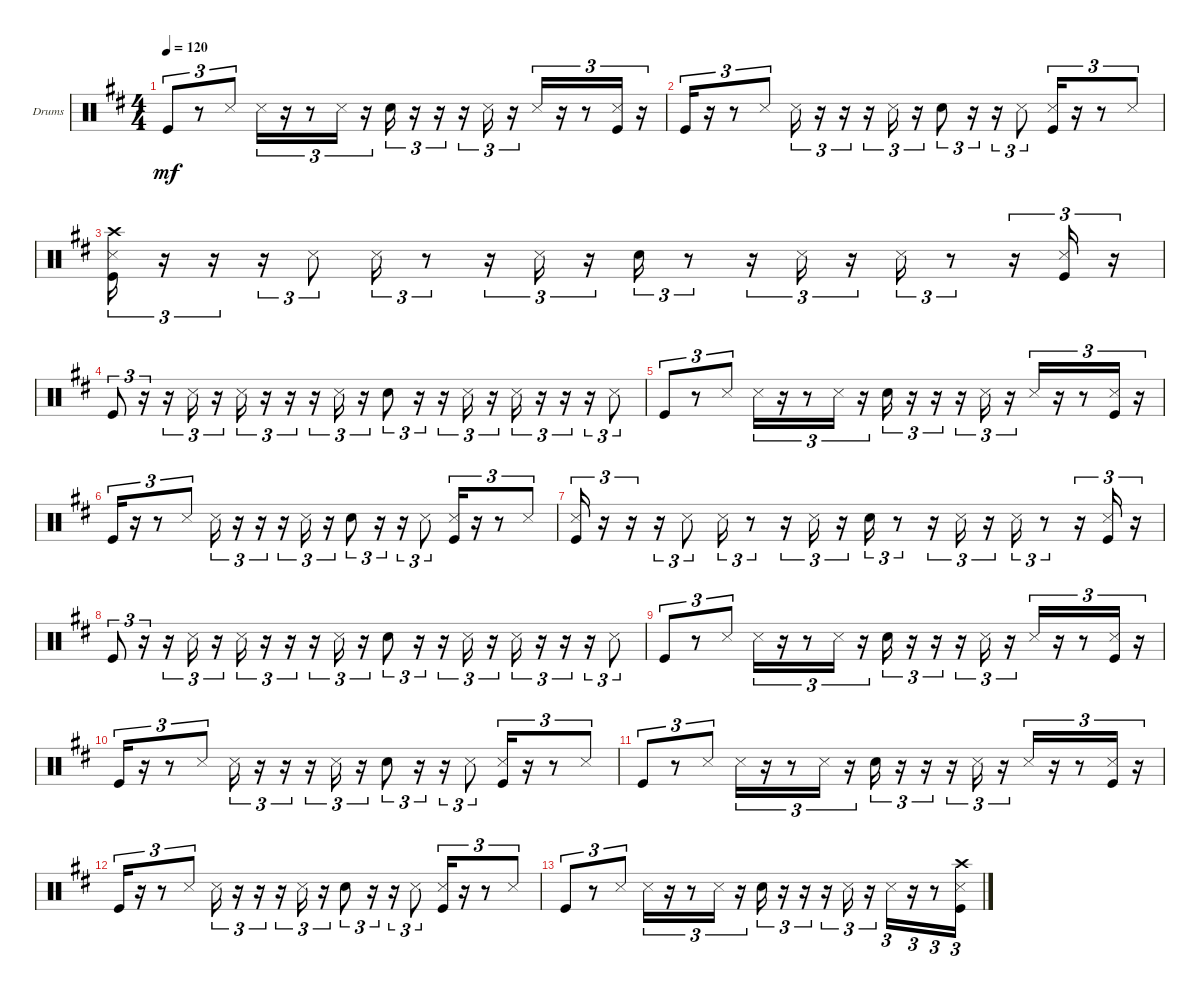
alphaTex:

\defaultSystemsLayout 4
\bracketExtendMode groupsimilarinstruments
\firstSystemTrackNameOrientation horizontal
\otherSystemsTrackNameOrientation horizontal
\track ("Drumkit" "Drums") {multiBarRest instrument percussion}
\staff {score}
\articulation defaults
\ts (4 4)
\tempo 120
\clef neutral
\ks d "Kick (hit)".8{tu (3 2) dy mf}
r.8{tu (3 2)} "Snare (side stick) 3".8{tu (3 2)} "Snare (side stick) 3".16{tu (3 2)} r.16{tu (3 2)} r.8{tu (3 2)} "Snare (side stick) 3".16{tu (3 2)} r.16{tu (3 2)} "Snare (hit) 2".16{tu (3 2)} r.16{tu (3 2)} r.16{tu (3 2)} r.16{tu (3 2)} "Snare (side stick) 3".16{tu (3 2)} r.16{tu (3 2)} "Snare (side stick) 3".16{tu (3 2)} r.16{tu (3 2)} r.8{tu (3 2)} ("Kick (hit)" "Snare (side stick) 3").16{tu (3 2)} r.16{tu (3 2)} |
"Kick (hit)".16{tu (3 2)} r.16{tu (3 2)} r.8{tu (3 2)} "Snare (side stick) 3".8{tu (3 2)} "Snare (side stick) 3".16{tu (3 2)} r.16{tu (3 2)} r.16{tu (3 2)} r.16{tu (3 2)} "Snare (side stick) 3".16{tu (3 2)} r.16{tu (3 2)} "Snare (hit) 2".8{tu (3 2)} r.16{tu (3 2)} r.16{tu (3 2)} "Snare (side stick) 3".8{tu (3 2)} ("Kick (hit)" "Snare (side stick) 3").16{tu (3 2)} r.16{tu (3 2)} r.8{tu (3 2)} "Snare (side stick) 3".8{tu (3 2)} |
("Crash high (hit)" "Kick (hit)" "Snare (side stick) 3").16{tu (3 2)} r.16{tu (3 2)} r.16{tu (3 2)} r.16{tu (3 2)} "Snare (side stick) 3".8{tu (3 2)} "Snare (side stick) 3".16{tu (3 2)} r.8{tu (3 2)} r.16{tu (3 2)} "Snare (side stick) 3".16{tu (3 2)} r.16{tu (3 2)} "Snare (hit) 2".16{tu (3 2)} r.8{tu (3 2)} r.16{tu (3 2)} "Snare (side stick) 3".16{tu (3 2)} r.16{tu (3 2)} "Snare (side stick) 3".16{tu (3 2)} r.8{tu (3 2)} r.16{tu (3 2)} ("Kick (hit)" "Snare (side stick) 3").16{tu (3 2)} r.16{tu (3 2)} |
"Kick (hit)".8{tu (3 2)} r.16{tu (3 2)} r.16{tu (3 2)} "Snare (side stick) 3".16{tu (3 2)} r.16{tu (3 2)} "Snare (side stick) 3".16{tu (3 2)} r.16{tu (3 2)} r.16{tu (3 2)} r.16{tu (3 2)} "Snare (side stick) 3".16{tu (3 2)} r.16{tu (3 2)} "Snare (hit) 2".8{tu (3 2)} r.16{tu (3 2)} r.16{tu (3 2)} "Snare (side stick) 3".16{tu (3 2)} r.16{tu (3 2)} "Snare (side stick) 3".16{tu (3 2)} r.16{tu (3 2)} r.16{tu (3 2)} r.16{tu (3 2)} "Snare (side stick) 3".8{tu (3 2)} |
"Kick (hit)".8{tu (3 2)} r.8{tu (3 2)} "Snare (side stick) 3".8{tu (3 2)} "Snare (side stick) 3".16{tu (3 2)} r.16{tu (3 2)} r.8{tu (3 2)} "Snare (side stick) 3".16{tu (3 2)} r.16{tu (3 2)} "Snare (hit) 2".16{tu (3 2)} r.16{tu (3 2)} r.16{tu (3 2)} r.16{tu (3 2)} "Snare (side stick) 3".16{tu (3 2)} r.16{tu (3 2)} "Snare (side stick) 3".16{tu (3 2)} r.16{tu (3 2)} r.8{tu (3 2)} ("Kick (hit)" "Snare (side stick) 3").16{tu (3 2)} r.16{tu (3 2)} |
"Kick (hit)".16{tu (3 2)} r.16{tu (3 2)} r.8{tu (3 2)} "Snare (side stick) 3".8{tu (3 2)} "Snare (side stick) 3".16{tu (3 2)} r.16{tu (3 2)} r.16{tu (3 2)} r.16{tu (3 2)} "Snare (side stick) 3".16{tu (3 2)} r.16{tu (3 2)} "Snare (hit) 2".8{tu (3 2)} r.16{tu (3 2)} r.16{tu (3 2)} "Snare (side stick) 3".8{tu (3 2)} ("Kick (hit)" "Snare (side stick) 3").16{tu (3 2)} r.16{tu (3 2)} r.8{tu (3 2)} "Snare (side stick) 3".8{tu (3 2)} |
("Kick (hit)" "Snare (side stick) 3").16{tu (3 2)} r.16{tu (3 2)} r.16{tu (3 2)} r.16{tu (3 2)} "Snare (side stick) 3".8{tu (3 2)} "Snare (side stick) 3".16{tu (3 2)} r.8{tu (3 2)} r.16{tu (3 2)} "Snare (side stick) 3".16{tu (3 2)} r.16{tu (3 2)} "Snare (hit) 2".16{tu (3 2)} r.8{tu (3 2)} r.16{tu (3 2)} "Snare (side stick) 3".16{tu (3 2)} r.16{tu (3 2)} "Snare (side stick) 3".16{tu (3 2)} r.8{tu (3 2)} r.16{tu (3 2)} ("Kick (hit)" "Snare (side stick) 3").16{tu (3 2)} r.16{tu (3 2)} |
"Kick (hit)".8{tu (3 2)} r.16{tu (3 2)} r.16{tu (3 2)} "Snare (side stick) 3".16{tu (3 2)} r.16{tu (3 2)} "Snare (side stick) 3".16{tu (3 2)} r.16{tu (3 2)} r.16{tu (3 2)} r.16{tu (3 2)} "Snare (side stick) 3".16{tu (3 2)} r.16{tu (3 2)} "Snare (hit) 2".8{tu (3 2)} r.16{tu (3 2)} r.16{tu (3 2)} "Snare (side stick) 3".16{tu (3 2)} r.16{tu (3 2)} "Snare (side stick) 3".16{tu (3 2)} r.16{tu (3 2)} r.16{tu (3 2)} r.16{tu (3 2)} "Snare (side stick) 3".8{tu (3 2)} |
"Kick (hit)".8{tu (3 2)} r.8{tu (3 2)} "Snare (side stick) 3".8{tu (3 2)} "Snare (side stick) 3".16{tu (3 2)} r.16{tu (3 2)} r.8{tu (3 2)} "Snare (side stick) 3".16{tu (3 2)} r.16{tu (3 2)} "Snare (hit) 2".16{tu (3 2)} r.16{tu (3 2)} r.16{tu (3 2)} r.16{tu (3 2)} "Snare (side stick) 3".16{tu (3 2)} r.16{tu (3 2)} "Snare (side stick) 3".16{tu (3 2)} r.16{tu (3 2)} r.8{tu (3 2)} ("Kick (hit)" "Snare (side stick) 3").16{tu (3 2)} r.16{tu (3 2)} |
"Kick (hit)".16{tu (3 2)} r.16{tu (3 2)} r.8{tu (3 2)} "Snare (side stick) 3".8{tu (3 2)} "Snare (side stick) 3".16{tu (3 2)} r.16{tu (3 2)} r.16{tu (3 2)} r.16{tu (3 2)} "Snare (side stick) 3".16{tu (3 2)} r.16{tu (3 2)} "Snare (hit) 2".8{tu (3 2)} r.16{tu (3 2)} r.16{tu (3 2)} "Snare (side stick) 3".8{tu (3 2)} ("Kick (hit)" "Snare (side stick) 3").16{tu (3 2)} r.16{tu (3 2)} r.8{tu (3 2)} "Snare (side stick) 3".8{tu (3 2)} |
"Kick (hit)".8{tu (3 2)} r.8{tu (3 2)} "Snare (side stick) 3".8{tu (3 2)} "Snare (side stick) 3".16{tu (3 2)} r.16{tu (3 2)} r.8{tu (3 2)} "Snare (side stick) 3".16{tu (3 2)} r.16{tu (3 2)} "Snare (hit) 2".16{tu (3 2)} r.16{tu (3 2)} r.16{tu (3 2)} r.16{tu (3 2)} "Snare (side stick) 3".16{tu (3 2)} r.16{tu (3 2)} "Snare (side stick) 3".16{tu (3 2)} r.16{tu (3 2)} r.8{tu (3 2)} ("Kick (hit)" "Snare (side stick) 3").16{tu (3 2)} r.16{tu (3 2)} |
"Kick (hit)".16{tu (3 2)} r.16{tu (3 2)} r.8{tu (3 2)} "Snare (side stick) 3".8{tu (3 2)} "Snare (side stick) 3".16{tu (3 2)} r.16{tu (3 2)} r.16{tu (3 2)} r.16{tu (3 2)} "Snare (side stick) 3".16{tu (3 2)} r.16{tu (3 2)} "Snare (hit) 2".8{tu (3 2)} r.16{tu (3 2)} r.16{tu (3 2)} "Snare (side stick) 3".8{tu (3 2)} ("Kick (hit)" "Snare (side stick) 3").16{tu (3 2)} r.16{tu (3 2)} r.8{tu (3 2)} "Snare (side stick) 3".8{tu (3 2)} |
"Kick (hit)".8{tu (3 2)} r.8{tu (3 2)} "Snare (side stick) 3".8{tu (3 2)} "Snare (side stick) 3".16{tu (3 2)} r.16{tu (3 2)} r.8{tu (3 2)} "Snare (side stick) 3".16{tu (3 2)} r.16{tu (3 2)} "Snare (hit) 2".16{tu (3 2)} r.16{tu (3 2)} r.16{tu (3 2)} r.16{tu (3 2)} "Snare (side stick) 3".16{tu (3 2)} r.16{tu (3 2)} "Snare (side stick) 3".16{tu (3 2)} r.16{tu (3 2)} r.8{tu (3 2)} ("Crash high (hit)" "Kick (hit)" "Snare (side stick) 3").16{tu (3 2)}
